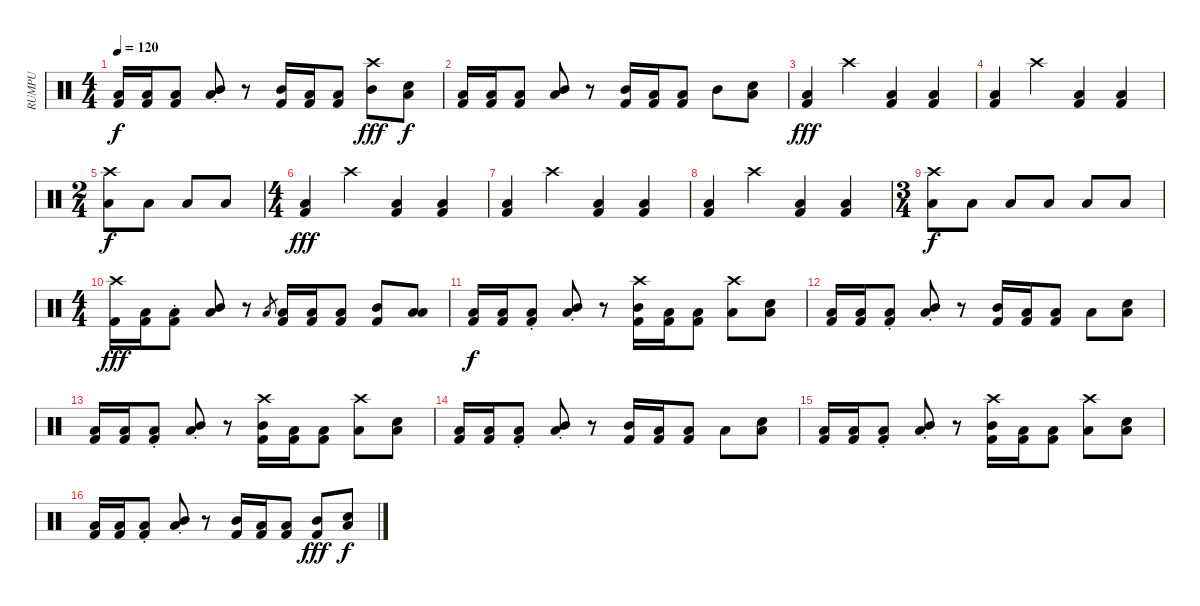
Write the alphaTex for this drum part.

\track ("RUMPU" "RUMPU") {instrument percussion}
\staff {score}
\articulation defaults
\ts (4 4)
\tempo 120
\clef neutral
\ks c
("Low Tom (hit)" "Kick (hit) 2").16{dy f} ("Low Floor Tom (hit)" "Kick (hit) 2").16 ("Low Floor Tom (hit)" "Kick (hit) 2").8 ("Mid Tom (hit)"{st} "Low Floor Tom (hit)").8 r.8 ("Mid Tom (hit)" "Kick (hit) 2").16 ("Low Tom (hit)" "Kick (hit) 2").16 ("Low Floor Tom (hit)" "Kick (hit) 2").8 ("Mid Tom (hit)" "Crash high (hit)").8{dy fff} ("Low Tom (hit)" "Electric Snare (hit)").8{dy f} |
("Low Tom (hit)" "Kick (hit) 2").16 ("Low Floor Tom (hit)" "Kick (hit) 2").16 ("Low Floor Tom (hit)" "Kick (hit) 2").8 ("Mid Tom (hit)" "Low Floor Tom (hit)").8 r.8 ("Mid Tom (hit)" "Kick (hit) 2").16 ("Low Tom (hit)" "Kick (hit) 2").16 ("Low Floor Tom (hit)" "Kick (hit) 2").8 "Mid Tom (hit)".8 ("Low Tom (hit)" "Electric Snare (hit)").8 |
("Low Floor Tom (hit)" "Kick (hit) 2").4{dy fff} "Crash high (hit)".4 ("Low Floor Tom (hit)" "Kick (hit) 2").4 ("Low Floor Tom (hit)" "Kick (hit) 2").4 |
("Low Floor Tom (hit)" "Kick (hit) 2").4 "Crash high (hit)".4 ("Low Floor Tom (hit)" "Kick (hit) 2").4 ("Low Floor Tom (hit)" "Kick (hit) 2").4 |
\ts (2 4)
("Low Floor Tom (hit)" "Crash high (hit)").8{dy f} "Low Floor Tom (hit)".8 "Low Floor Tom (hit)".8 "Low Floor Tom (hit)".8 |
\ts (4 4)
("Low Floor Tom (hit)" "Kick (hit) 2").4{dy fff} "Crash high (hit)".4 ("Low Floor Tom (hit)" "Kick (hit) 2").4 ("Low Floor Tom (hit)" "Kick (hit) 2").4 |
("Low Floor Tom (hit)" "Kick (hit) 2").4 "Crash high (hit)".4 ("Low Floor Tom (hit)" "Kick (hit) 2").4 ("Low Floor Tom (hit)" "Kick (hit) 2").4 |
("Low Floor Tom (hit)" "Kick (hit) 2").4 "Crash high (hit)".4 ("Low Floor Tom (hit)" "Kick (hit) 2").4 ("Low Floor Tom (hit)" "Kick (hit) 2").4 |
\ts (3 4)
("Crash high (hit)" "Low Floor Tom (hit)").8{dy f} "Low Floor Tom (hit)".8 "Low Floor Tom (hit)".8 "Low Floor Tom (hit)".8 "Low Floor Tom (hit)".8 "Low Floor Tom (hit)".8 |
\ts (4 4)
("Crash high (hit)" "Kick (hit) 2").16{dy fff} ("Low Floor Tom (hit)" "Kick (hit) 2").16 ("Low Floor Tom (hit)" "Kick (hit) 2"{st}).8 ("Low Floor Tom (hit)" "Mid Tom (hit)").8 r.8 "Low Floor Tom (hit)".8{gr} ("Low Floor Tom (hit)" "Kick (hit) 2").16 ("Low Floor Tom (hit)" "Kick (hit) 2").16 ("Low Floor Tom (hit)" "Kick (hit) 2").8 ("Mid Tom (hit)" "Kick (hit) 2").8 ("Low Floor Tom (hit)" "Low Tom (hit)").8 |
("Low Tom (hit)" "Kick (hit) 2").16{dy f} ("Low Floor Tom (hit)" "Kick (hit) 2").16 ("Low Floor Tom (hit)" "Kick (hit) 2"{st}).8 ("Mid Tom (hit)"{st} "Low Floor Tom (hit)").8 r.8 ("Mid Tom (hit)" "Crash high (hit)" "Kick (hit) 2").16 ("Low Tom (hit)" "Kick (hit) 2").16 ("Low Floor Tom (hit)" "Kick (hit) 2").8 ("Low Floor Tom (hit)" "Crash high (hit)").8 ("Low Tom (hit)" "Electric Snare (hit)").8 |
("Low Tom (hit)" "Kick (hit) 2").16 ("Low Floor Tom (hit)" "Kick (hit) 2").16 ("Low Floor Tom (hit)" "Kick (hit) 2"{st}).8 ("Mid Tom (hit)"{st} "Low Floor Tom (hit)").8 r.8 ("Mid Tom (hit)" "Kick (hit) 2").16 ("Low Tom (hit)" "Kick (hit) 2").16 ("Low Floor Tom (hit)" "Kick (hit) 2").8 "Low Floor Tom (hit)".8 ("Low Tom (hit)" "Electric Snare (hit)").8 |
("Low Tom (hit)" "Kick (hit) 2").16 ("Low Floor Tom (hit)" "Kick (hit) 2").16 ("Low Floor Tom (hit)" "Kick (hit) 2"{st}).8 ("Mid Tom (hit)"{st} "Low Floor Tom (hit)").8 r.8 ("Mid Tom (hit)" "Crash high (hit)" "Kick (hit) 2").16 ("Low Tom (hit)" "Kick (hit) 2").16 ("Low Floor Tom (hit)" "Kick (hit) 2").8 ("Low Floor Tom (hit)" "Crash high (hit)").8 ("Low Tom (hit)" "Electric Snare (hit)").8 |
("Low Tom (hit)" "Kick (hit) 2").16 ("Low Floor Tom (hit)" "Kick (hit) 2").16 ("Low Floor Tom (hit)" "Kick (hit) 2"{st}).8 ("Mid Tom (hit)"{st} "Low Floor Tom (hit)").8 r.8 ("Mid Tom (hit)" "Kick (hit) 2").16 ("Low Tom (hit)" "Kick (hit) 2").16 ("Low Floor Tom (hit)" "Kick (hit) 2").8 "Low Floor Tom (hit)".8 ("Low Tom (hit)" "Electric Snare (hit)").8 |
("Low Tom (hit)" "Kick (hit) 2").16 ("Low Floor Tom (hit)" "Kick (hit) 2").16 ("Low Floor Tom (hit)" "Kick (hit) 2"{st}).8 ("Mid Tom (hit)"{st} "Low Floor Tom (hit)").8 r.8 ("Mid Tom (hit)" "Crash high (hit)" "Kick (hit) 2").16 ("Low Tom (hit)" "Kick (hit) 2").16 ("Low Floor Tom (hit)" "Kick (hit) 2").8 ("Low Floor Tom (hit)" "Crash high (hit)").8 ("Low Tom (hit)" "Electric Snare (hit)").8 |
("Low Tom (hit)" "Kick (hit) 2").16 ("Low Floor Tom (hit)" "Kick (hit) 2").16 ("Low Floor Tom (hit)" "Kick (hit) 2"{st}).8 ("Mid Tom (hit)"{st} "Low Floor Tom (hit)").8 r.8 ("Mid Tom (hit)" "Kick (hit) 2").16 ("Low Tom (hit)" "Kick (hit) 2").16 ("Low Floor Tom (hit)" "Kick (hit) 2").8 ("Mid Tom (hit)" "Kick (hit) 2").8{dy fff} ("Low Tom (hit)" "Electric Snare (hit)").8{dy f}
